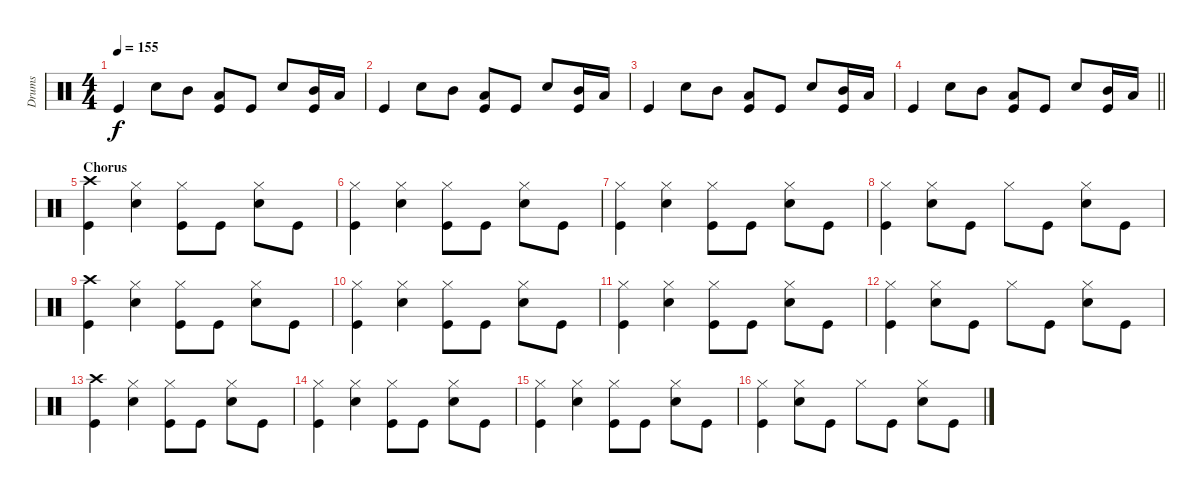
\track ("Drums" "Drums") {instrument percussion}
\staff {score}
\articulation defaults
\ts (4 4)
\tempo 155
\clef neutral
\ks c "Kick (hit)".4{dy f} "Snare (hit) 2".8 "Mid Tom (hit)".8
("Low Tom (hit)" "Kick (hit)").8 "Kick (hit)".8 "Snare (hit) 2".8 ("Mid Tom (hit)" "Kick (hit)").16 "Low Tom (hit)".16 |
"Kick (hit)".4 "Snare (hit) 2".8 "Mid Tom (hit)".8 ("Low Tom (hit)" "Kick (hit)").8 "Kick (hit)".8 "Snare (hit) 2".8 ("Mid Tom (hit)" "Kick (hit)").16 "Low Tom (hit)".16 |
"Kick (hit)".4 "Snare (hit) 2".8 "Mid Tom (hit)".8 ("Low Tom (hit)" "Kick (hit)").8 "Kick (hit)".8 "Snare (hit) 2".8 ("Mid Tom (hit)" "Kick (hit)").16 "Low Tom (hit)".16 |
\barLineRight lightlight "Kick (hit)".4 "Snare (hit) 2".8 "Mid Tom (hit)".8
("Low Tom (hit)" "Kick (hit)").8 "Kick (hit)".8 "Snare (hit) 2".8 ("Mid Tom (hit)" "Kick (hit)").16 "Low Tom (hit)".16 |
\section ("" "Chorus")
("Crash high (hit)" "Kick (hit)").4 ("Hi-Hat (closed)" "Snare (hit) 2").4 ("Hi-Hat (closed)" "Kick (hit)").8 "Kick (hit)".8 ("Hi-Hat (closed)" "Snare (hit) 2").8 "Kick (hit)".8 |
("Hi-Hat (closed)" "Kick (hit)").4 ("Hi-Hat (closed)" "Snare (hit) 2").4 ("Hi-Hat (closed)" "Kick (hit)").8 "Kick (hit)".8 ("Hi-Hat (closed)" "Snare (hit) 2").8 "Kick (hit)".8 |
("Hi-Hat (closed)" "Kick (hit)").4 ("Hi-Hat (closed)" "Snare (hit) 2").4 ("Hi-Hat (closed)" "Kick (hit)").8 "Kick (hit)".8 ("Hi-Hat (closed)" "Snare (hit) 2").8 "Kick (hit)".8 |
("Hi-Hat (closed)" "Kick (hit)").4 ("Hi-Hat (closed)" "Snare (hit) 2").8 "Kick (hit)".8 "Hi-Hat (closed)".8 "Kick (hit)".8 ("Hi-Hat (closed)" "Snare (hit) 2").8 "Kick (hit)".8 |
("Crash high (hit)" "Kick (hit)").4 ("Hi-Hat (closed)" "Snare (hit) 2").4 ("Hi-Hat (closed)" "Kick (hit)").8 "Kick (hit)".8 ("Hi-Hat (closed)" "Snare (hit) 2").8 "Kick (hit)".8 |
("Hi-Hat (closed)" "Kick (hit)").4 ("Hi-Hat (closed)" "Snare (hit) 2").4 ("Hi-Hat (closed)" "Kick (hit)").8 "Kick (hit)".8 ("Hi-Hat (closed)" "Snare (hit) 2").8 "Kick (hit)".8 |
("Hi-Hat (closed)" "Kick (hit)").4 ("Hi-Hat (closed)" "Snare (hit) 2").4 ("Hi-Hat (closed)" "Kick (hit)").8 "Kick (hit)".8 ("Hi-Hat (closed)" "Snare (hit) 2").8 "Kick (hit)".8 |
("Hi-Hat (closed)" "Kick (hit)").4 ("Hi-Hat (closed)" "Snare (hit) 2").8 "Kick (hit)".8 "Hi-Hat (closed)".8 "Kick (hit)".8 ("Hi-Hat (closed)" "Snare (hit) 2").8 "Kick (hit)".8 |
("Crash high (hit)" "Kick (hit)").4 ("Hi-Hat (closed)" "Snare (hit) 2").4 ("Hi-Hat (closed)" "Kick (hit)").8 "Kick (hit)".8 ("Hi-Hat (closed)" "Snare (hit) 2").8 "Kick (hit)".8 |
("Hi-Hat (closed)" "Kick (hit)").4 ("Hi-Hat (closed)" "Snare (hit) 2").4 ("Hi-Hat (closed)" "Kick (hit)").8 "Kick (hit)".8 ("Hi-Hat (closed)" "Snare (hit) 2").8 "Kick (hit)".8 |
("Hi-Hat (closed)" "Kick (hit)").4 ("Hi-Hat (closed)" "Snare (hit) 2").4 ("Hi-Hat (closed)" "Kick (hit)").8 "Kick (hit)".8 ("Hi-Hat (closed)" "Snare (hit) 2").8 "Kick (hit)".8 |
("Hi-Hat (closed)" "Kick (hit)").4 ("Hi-Hat (closed)" "Snare (hit) 2").8 "Kick (hit)".8 "Hi-Hat (closed)".8 "Kick (hit)".8 ("Hi-Hat (closed)" "Snare (hit) 2").8 "Kick (hit)".8
